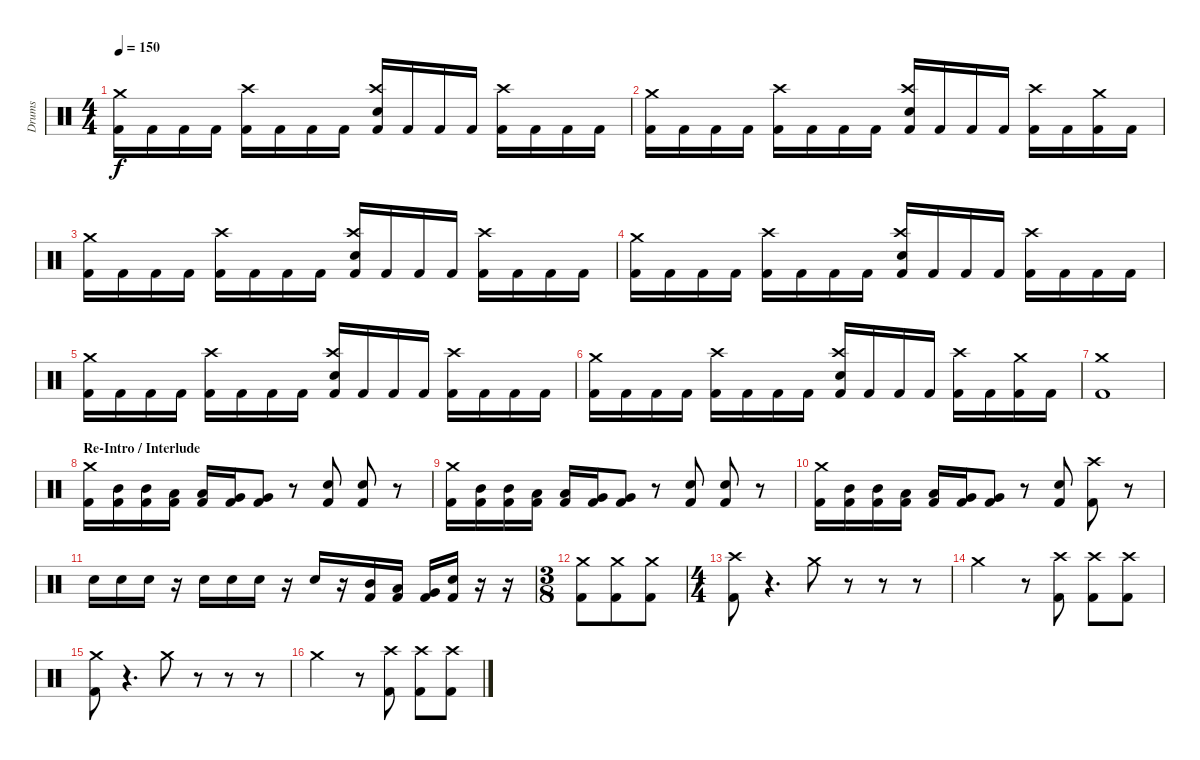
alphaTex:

\track ("Drums" "Drums") {instrument percussion}
\staff {score}
\articulation defaults
\ts (4 4)
\tempo 150
\clef neutral
\ks c
("Crash medium (hit)" "Kick (hit) 2").16{dy f} "Kick (hit) 2".16 "Kick (hit) 2".16 "Kick (hit) 2".16 ("Crash high (hit)" "Kick (hit) 2").16 "Kick (hit) 2".16 "Kick (hit) 2".16 "Kick (hit) 2".16 ("Crash high (hit)" "Electric Snare (hit)" "Kick (hit) 2").16 "Kick (hit) 2".16 "Kick (hit) 2".16 "Kick (hit) 2".16 ("Crash high (hit)" "Kick (hit) 2").16 "Kick (hit) 2".16 "Kick (hit) 2".16 "Kick (hit) 2".16 |
("Crash medium (hit)" "Kick (hit) 2").16 "Kick (hit) 2".16 "Kick (hit) 2".16 "Kick (hit) 2".16 ("Crash high (hit)" "Kick (hit) 2").16 "Kick (hit) 2".16 "Kick (hit) 2".16 "Kick (hit) 2".16 ("Crash high (hit)" "Electric Snare (hit)" "Kick (hit) 2").16 "Kick (hit) 2".16 "Kick (hit) 2".16 "Kick (hit) 2".16 ("Crash high (hit)" "Kick (hit) 2").16 "Kick (hit) 2".16 ("Crash medium (hit)" "Kick (hit) 2").16 "Kick (hit) 2".16 |
("Crash medium (hit)" "Kick (hit) 2").16 "Kick (hit) 2".16 "Kick (hit) 2".16 "Kick (hit) 2".16 ("Crash high (hit)" "Kick (hit) 2").16 "Kick (hit) 2".16 "Kick (hit) 2".16 "Kick (hit) 2".16 ("Crash high (hit)" "Electric Snare (hit)" "Kick (hit) 2").16 "Kick (hit) 2".16 "Kick (hit) 2".16 "Kick (hit) 2".16 ("Crash high (hit)" "Kick (hit) 2").16 "Kick (hit) 2".16 "Kick (hit) 2".16 "Kick (hit) 2".16 |
("Crash medium (hit)" "Kick (hit) 2").16 "Kick (hit) 2".16 "Kick (hit) 2".16 "Kick (hit) 2".16 ("Crash high (hit)" "Kick (hit) 2").16 "Kick (hit) 2".16 "Kick (hit) 2".16 "Kick (hit) 2".16 ("Crash high (hit)" "Electric Snare (hit)" "Kick (hit) 2").16 "Kick (hit) 2".16 "Kick (hit) 2".16 "Kick (hit) 2".16 ("Crash high (hit)" "Kick (hit) 2").16 "Kick (hit) 2".16 "Kick (hit) 2".16 "Kick (hit) 2".16 |
("Crash medium (hit)" "Kick (hit) 2").16 "Kick (hit) 2".16 "Kick (hit) 2".16 "Kick (hit) 2".16 ("Crash high (hit)" "Kick (hit) 2").16 "Kick (hit) 2".16 "Kick (hit) 2".16 "Kick (hit) 2".16 ("Crash high (hit)" "Electric Snare (hit)" "Kick (hit) 2").16 "Kick (hit) 2".16 "Kick (hit) 2".16 "Kick (hit) 2".16 ("Crash high (hit)" "Kick (hit) 2").16 "Kick (hit) 2".16 "Kick (hit) 2".16 "Kick (hit) 2".16 |
("Crash medium (hit)" "Kick (hit) 2").16 "Kick (hit) 2".16 "Kick (hit) 2".16 "Kick (hit) 2".16 ("Crash high (hit)" "Kick (hit) 2").16 "Kick (hit) 2".16 "Kick (hit) 2".16 "Kick (hit) 2".16 ("Crash high (hit)" "Electric Snare (hit)" "Kick (hit) 2").16 "Kick (hit) 2".16 "Kick (hit) 2".16 "Kick (hit) 2".16 ("Crash high (hit)" "Kick (hit) 2").16 "Kick (hit) 2".16 ("Crash medium (hit)" "Kick (hit) 2").16 "Kick (hit) 2".16 |
("Crash medium (hit)" "Kick (hit) 2").1 |
\section ("" "Re-Intro / Interlude")
("Crash medium (hit)" "Kick (hit) 2").16 ("Mid Tom (hit)" "Kick (hit) 2").16 ("Mid Tom (hit)" "Kick (hit) 2").16 ("Low Tom (hit)" "Kick (hit) 2").16 ("Low Tom (hit)" "Kick (hit) 2").16 ("Very Low Tom (hit)" "Kick (hit) 2").16 ("Very Low Tom (hit)" "Kick (hit) 2").8 r.8 ("Electric Snare (hit)" "Kick (hit) 2").8 ("Electric Snare (hit)" "Kick (hit) 2").8 r.8 |
("Crash medium (hit)" "Kick (hit) 2").16 ("Mid Tom (hit)" "Kick (hit) 2").16 ("Mid Tom (hit)" "Kick (hit) 2").16 ("Low Tom (hit)" "Kick (hit) 2").16 ("Low Tom (hit)" "Kick (hit) 2").16 ("Very Low Tom (hit)" "Kick (hit) 2").16 ("Very Low Tom (hit)" "Kick (hit) 2").8 r.8 ("Electric Snare (hit)" "Kick (hit) 2").8 ("Electric Snare (hit)" "Kick (hit) 2").8 r.8 |
("Crash medium (hit)" "Kick (hit) 2").16 ("Mid Tom (hit)" "Kick (hit) 2").16 ("Mid Tom (hit)" "Kick (hit) 2").16 ("Low Tom (hit)" "Kick (hit) 2").16 ("Low Tom (hit)" "Kick (hit) 2").16 ("Very Low Tom (hit)" "Kick (hit) 2").16 ("Very Low Tom (hit)" "Kick (hit) 2").8 r.8 ("Electric Snare (hit)" "Kick (hit) 2").8 ("Crash high (hit)" "Kick (hit) 2").8 r.8 |
"Electric Snare (hit)".16 "Electric Snare (hit)".16 "Electric Snare (hit)".16 r.16 "Electric Snare (hit)".16 "Electric Snare (hit)".16 "Electric Snare (hit)".16 r.16 "Electric Snare (hit)".16 r.16 ("Mid Tom (hit)" "Kick (hit) 2").16 ("Low Tom (hit)" "Kick (hit) 2").16 ("Very Low Tom (hit)" "Kick (hit) 2").16 ("Electric Snare (hit)" "Kick (hit) 2").16 r.16 r.16 |
\ts (3 8)
("Crash medium (hit)" "Kick (hit) 2").8 ("Crash medium (hit)" "Kick (hit) 2").8 ("Crash medium (hit)" "Kick (hit) 2").8 |
\ts (4 4)
("Crash high (hit)" "Kick (hit) 2").8 r.4{d} "Crash medium (hit)".8 r.8 r.8 r.8 |
"Crash medium (hit)".2 r.8 ("Crash high (hit)" "Kick (hit) 2").8 ("Crash high (hit)" "Kick (hit) 2").8 ("Crash high (hit)" "Kick (hit) 2").8 |
("Crash medium (hit)" "Kick (hit) 2").8 r.4{d} "Crash medium (hit)".8 r.8 r.8 r.8 |
"Crash medium (hit)".2 r.8 ("Crash high (hit)" "Kick (hit) 2").8 ("Crash high (hit)" "Kick (hit) 2").8 ("Crash high (hit)" "Kick (hit) 2").8
